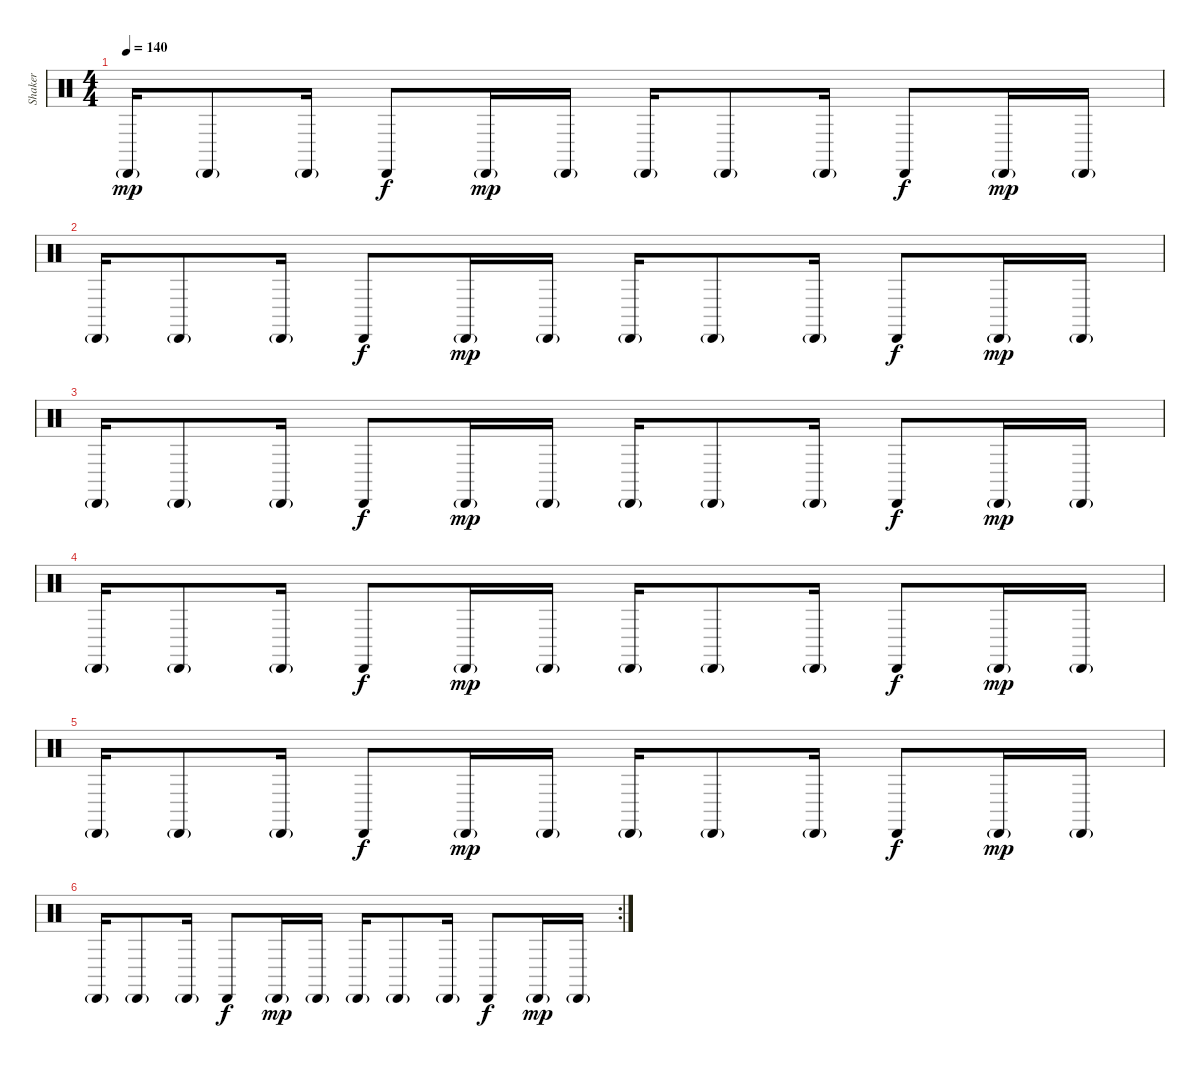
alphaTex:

\track ("Shaker" "Shaker") {instrument percussion}
\staff {score}
\articulation defaults
\ts (4 4)
\tempo 140
\clef neutral
\ks c "Cabasa (hit)"{g}.16{dy mp} "Cabasa (hit)"{g}.8 "Cabasa (hit)"{g}.16 "Cabasa (hit)".8{dy f} "Cabasa (hit)"{g}.16{dy mp} "Cabasa (hit)"{g}.16 "Cabasa (hit)"{g}.16 "Cabasa (hit)"{g}.8 "Cabasa (hit)"{g}.16 "Cabasa (hit)".8{dy f} "Cabasa (hit)"{g}.16{dy mp} "Cabasa (hit)"{g}.16
|
"Cabasa (hit)"{g}.16 "Cabasa (hit)"{g}.8 "Cabasa (hit)"{g}.16 "Cabasa (hit)".8{dy f} "Cabasa (hit)"{g}.16{dy mp} "Cabasa (hit)"{g}.16 "Cabasa (hit)"{g}.16 "Cabasa (hit)"{g}.8 "Cabasa (hit)"{g}.16 "Cabasa (hit)".8{dy f} "Cabasa (hit)"{g}.16{dy mp} "Cabasa (hit)"{g}.16 |
"Cabasa (hit)"{g}.16 "Cabasa (hit)"{g}.8 "Cabasa (hit)"{g}.16 "Cabasa (hit)".8{dy f} "Cabasa (hit)"{g}.16{dy mp} "Cabasa (hit)"{g}.16 "Cabasa (hit)"{g}.16 "Cabasa (hit)"{g}.8 "Cabasa (hit)"{g}.16 "Cabasa (hit)".8{dy f} "Cabasa (hit)"{g}.16{dy mp} "Cabasa (hit)"{g}.16 |
"Cabasa (hit)"{g}.16 "Cabasa (hit)"{g}.8 "Cabasa (hit)"{g}.16 "Cabasa (hit)".8{dy f} "Cabasa (hit)"{g}.16{dy mp} "Cabasa (hit)"{g}.16 "Cabasa (hit)"{g}.16 "Cabasa (hit)"{g}.8 "Cabasa (hit)"{g}.16 "Cabasa (hit)".8{dy f} "Cabasa (hit)"{g}.16{dy mp} "Cabasa (hit)"{g}.16 |
"Cabasa (hit)"{g}.16 "Cabasa (hit)"{g}.8 "Cabasa (hit)"{g}.16 "Cabasa (hit)".8{dy f} "Cabasa (hit)"{g}.16{dy mp} "Cabasa (hit)"{g}.16 "Cabasa (hit)"{g}.16 "Cabasa (hit)"{g}.8 "Cabasa (hit)"{g}.16 "Cabasa (hit)".8{dy f} "Cabasa (hit)"{g}.16{dy mp} "Cabasa (hit)"{g}.16 |
\rc 2 "Cabasa (hit)"{g}.16 "Cabasa (hit)"{g}.8 "Cabasa (hit)"{g}.16 "Cabasa (hit)".8{dy f} "Cabasa (hit)"{g}.16{dy mp} "Cabasa (hit)"{g}.16 "Cabasa (hit)"{g}.16 "Cabasa (hit)"{g}.8 "Cabasa (hit)"{g}.16 "Cabasa (hit)".8{dy f} "Cabasa (hit)"{g}.16{dy mp} "Cabasa (hit)"{g}.16
